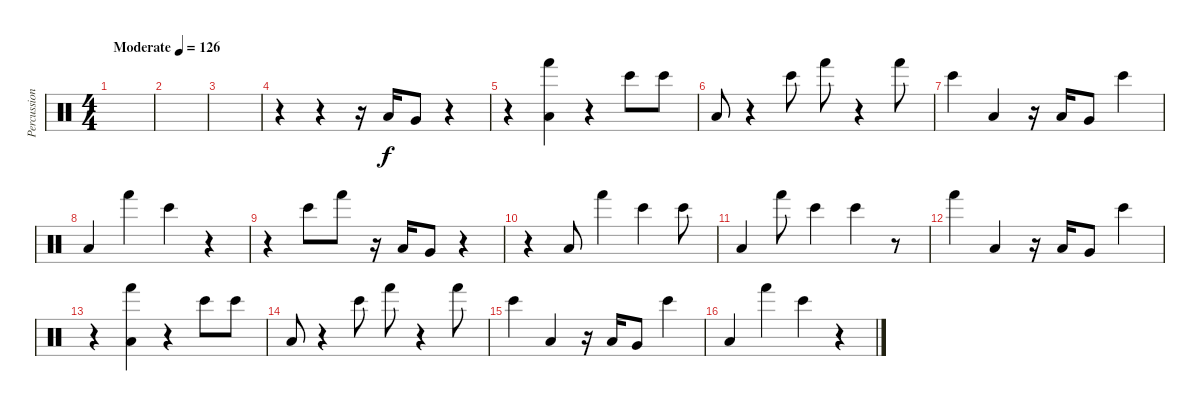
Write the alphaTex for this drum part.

\track ("Percussion" "Percussion") {instrument percussion}
\staff {score}
\articulation defaults
\ts (4 4)
\tempo (126 "Moderate")
\clef neutral
\ks c
|
|
|
r.4 r.4 r.16 "Low Floor Tom (hit)".16 "Very Low Tom (hit)".8 r.4 |
r.4 ("Low Floor Tom (hit)" "Hand (hit)").4 r.4 "Bongo High (hit)".8 "Bongo High (hit)".8 |
"Low Floor Tom (hit)".8 r.4 "Bongo High (hit)".8 "Hand (hit)".8 r.4 "Hand (hit)".8 |
"Bongo High (hit)".4 "Low Floor Tom (hit)".4 r.16 "Low Floor Tom (hit)".16 "Very Low Tom (hit)".8 "Bongo High (hit)".4 |
"Low Floor Tom (hit)".4 "Hand (hit)".4 "Bongo High (hit)".4 r.4 |
r.4 "Bongo High (hit)".8 "Hand (hit)".8 r.16 "Low Floor Tom (hit)".16 "Very Low Tom (hit)".8 r.4 |
r.4 "Low Floor Tom (hit)".8 "Hand (hit)".4 "Bongo High (hit)".4 "Bongo High (hit)".8 |
"Low Floor Tom (hit)".4 "Hand (hit)".8 "Bongo High (hit)".4 "Bongo High (hit)".4 r.8 |
"Hand (hit)".4 "Low Floor Tom (hit)".4 r.16 "Low Floor Tom (hit)".16 "Very Low Tom (hit)".8 "Bongo High (hit)".4 |
r.4 ("Low Floor Tom (hit)" "Hand (hit)").4 r.4 "Bongo High (hit)".8 "Bongo High (hit)".8 |
"Low Floor Tom (hit)".8 r.4 "Bongo High (hit)".8 "Hand (hit)".8 r.4 "Hand (hit)".8 |
"Bongo High (hit)".4 "Low Floor Tom (hit)".4 r.16 "Low Floor Tom (hit)".16 "Very Low Tom (hit)".8 "Bongo High (hit)".4 |
"Low Floor Tom (hit)".4 "Hand (hit)".4 "Bongo High (hit)".4 r.4
